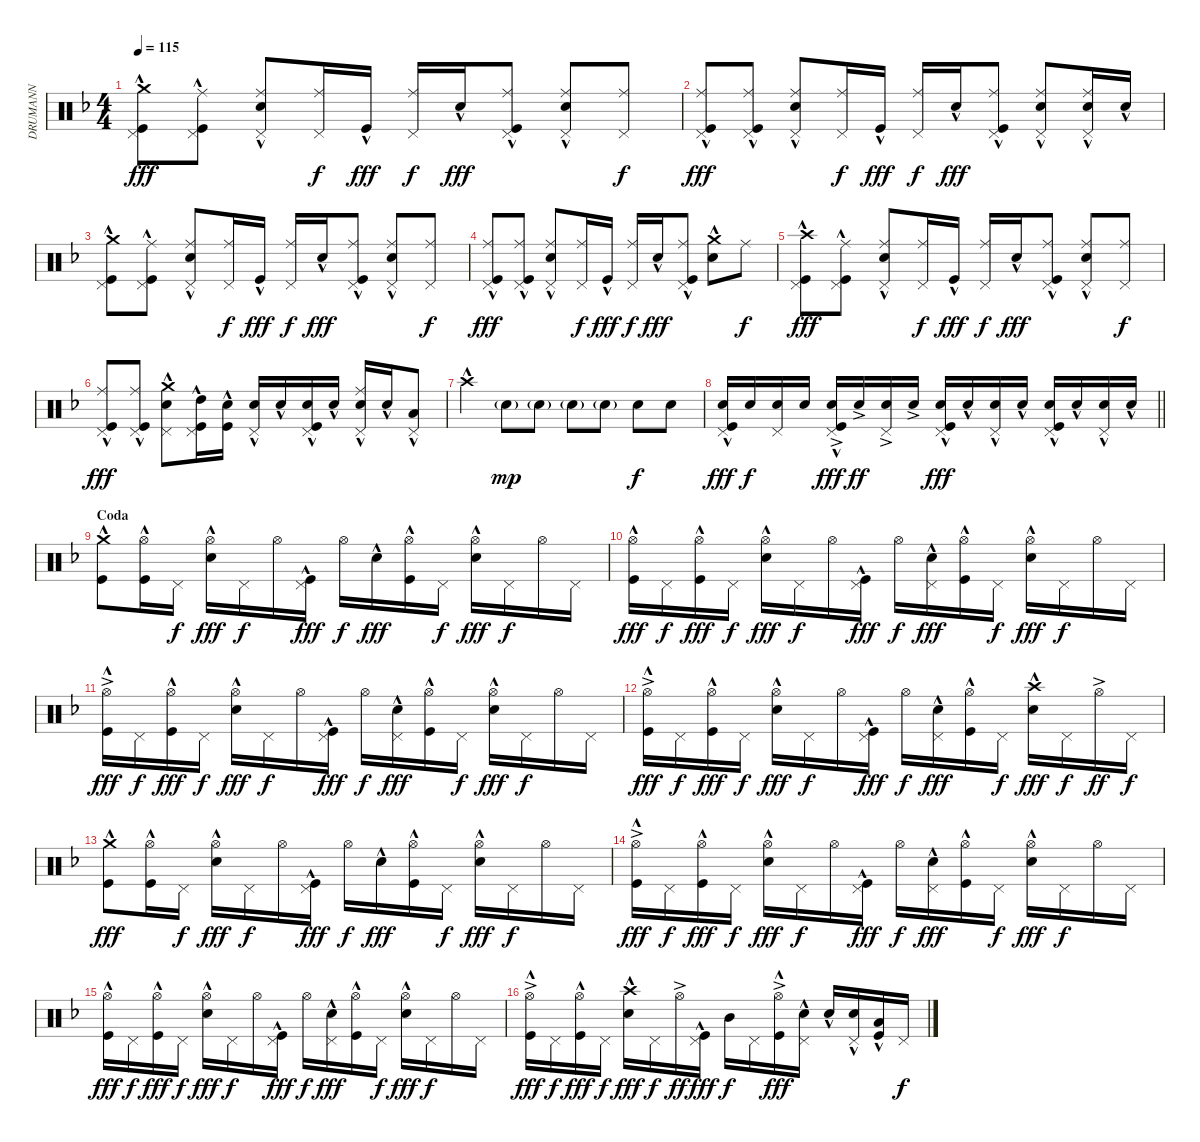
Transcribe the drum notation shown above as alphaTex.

\track ("DRUMANN" "DRUMANN") {instrument percussion}
\staff {score}
\articulation defaults
\ts (4 4)
\tempo 115
\clef neutral
\ks f
("Crash medium (hit)"{hac} "Pedal Hi-Hat (hit)" "Kick (hit)"{hac}).8{dy fff} ("Ride (middle)" "Pedal Hi-Hat (hit)" "Kick (hit)"{hac}).8 ("Ride (middle)" "Snare (hit) 2"{hac} "Pedal Hi-Hat (hit)").8 ("Ride (middle)" "Pedal Hi-Hat (hit)").16{dy f} "Kick (hit)"{hac}.16{dy fff} ("Ride (middle)" "Pedal Hi-Hat (hit)").16{dy f} "Snare (hit) 2"{hac}.16{dy fff} ("Ride (middle)" "Pedal Hi-Hat (hit)" "Kick (hit)"{hac}).8 ("Ride (middle)" "Snare (hit) 2"{hac} "Pedal Hi-Hat (hit)").8 ("Ride (middle)" "Pedal Hi-Hat (hit)").8{dy f} |
("Ride (middle)" "Pedal Hi-Hat (hit)" "Kick (hit)"{hac}).8{dy fff} ("Ride (middle)" "Pedal Hi-Hat (hit)" "Kick (hit)"{hac}).8 ("Ride (middle)" "Snare (hit) 2"{hac} "Pedal Hi-Hat (hit)").8 ("Ride (middle)" "Pedal Hi-Hat (hit)").16{dy f} "Kick (hit)"{hac}.16{dy fff} ("Ride (middle)" "Pedal Hi-Hat (hit)").16{dy f} "Snare (hit) 2"{hac}.16{dy fff} ("Ride (middle)" "Pedal Hi-Hat (hit)" "Kick (hit)"{hac}).8 ("Ride (middle)" "Snare (hit) 2"{hac} "Pedal Hi-Hat (hit)").8 ("Ride (middle)" "Snare (hit) 2"{hac} "Pedal Hi-Hat (hit)").16 "Snare (hit) 2"{hac}.16 |
("Crash medium (hit)"{hac} "Pedal Hi-Hat (hit)" "Kick (hit)"{hac}).8 ("Ride (middle)" "Pedal Hi-Hat (hit)" "Kick (hit)"{hac}).8 ("Ride (middle)" "Snare (hit) 2"{hac} "Pedal Hi-Hat (hit)").8 ("Ride (middle)" "Pedal Hi-Hat (hit)").16{dy f} "Kick (hit)"{hac}.16{dy fff} ("Ride (middle)" "Pedal Hi-Hat (hit)").16{dy f} "Snare (hit) 2"{hac}.16{dy fff} ("Ride (middle)" "Pedal Hi-Hat (hit)" "Kick (hit)"{hac}).8 ("Ride (middle)" "Snare (hit) 2"{hac} "Pedal Hi-Hat (hit)").8 ("Ride (middle)" "Pedal Hi-Hat (hit)").8{dy f} |
("Ride (middle)" "Pedal Hi-Hat (hit)" "Kick (hit)"{hac}).8{dy fff} ("Ride (middle)" "Pedal Hi-Hat (hit)" "Kick (hit)"{hac}).8 ("Ride (middle)" "Snare (hit) 2"{hac} "Pedal Hi-Hat (hit)").8 ("Ride (middle)" "Pedal Hi-Hat (hit)").16{dy f} "Kick (hit)"{hac}.16{dy fff} ("Ride (middle)" "Pedal Hi-Hat (hit)").16{dy f} "Snare (hit) 2"{hac}.16{dy fff} ("Ride (middle)" "Pedal Hi-Hat (hit)" "Kick (hit)"{hac}).8 ("Crash medium (hit)"{hac} "Snare (hit) 2"{hac}).8 "Ride (middle)".8{dy f} |
("Crash high (hit)"{hac} "Pedal Hi-Hat (hit)" "Kick (hit)"{hac}).8{dy fff} ("Ride (middle)" "Pedal Hi-Hat (hit)" "Kick (hit)"{hac}).8 ("Ride (middle)" "Snare (hit) 2"{hac} "Pedal Hi-Hat (hit)").8 ("Ride (middle)" "Pedal Hi-Hat (hit)").16{dy f} "Kick (hit)"{hac}.16{dy fff} ("Ride (middle)" "Pedal Hi-Hat (hit)").16{dy f} "Snare (hit) 2"{hac}.16{dy fff} ("Ride (middle)" "Pedal Hi-Hat (hit)" "Kick (hit)"{hac}).8 ("Ride (middle)" "Snare (hit) 2"{hac} "Pedal Hi-Hat (hit)").8 ("Ride (middle)" "Pedal Hi-Hat (hit)").8{dy f} |
("Ride (middle)"{hac} "Pedal Hi-Hat (hit)" "Kick (hit)"{hac}).8{dy fff} ("Ride (middle)" "Pedal Hi-Hat (hit)" "Kick (hit)"{hac}).8 ("Crash medium (hit)"{hac} "Snare (hit) 2"{hac} "Pedal Hi-Hat (hit)").8 ("High Tom (hit)"{hac} "Pedal Hi-Hat (hit)" "Kick (hit)"{hac}).16 ("Snare (hit) 2"{hac} "Kick (hit)"{hac}).16 ("Snare (hit) 2"{hac} "Pedal Hi-Hat (hit)").16 "Snare (hit) 2"{hac}.16 ("Snare (hit) 2"{hac} "Pedal Hi-Hat (hit)" "Kick (hit)"{hac}).16 "Snare (hit) 2"{hac}.16 ("Ride (middle)" "Snare (hit) 2"{hac} "Pedal Hi-Hat (hit)").16 "Snare (hit) 2"{hac}.16 ("Low Tom (hit)"{hac} "Pedal Hi-Hat (hit)").8 |
"Crash high (hit)"{hac}.4 "Snare (hit) 2"{g}.8{dy mp} "Snare (hit) 2"{g}.8 "Snare (hit) 2"{g}.8 "Snare (hit) 2"{g}.8 "Snare (hit) 2".8{dy f} "Snare (hit) 2".8 |
\barLineRight lightlight
("Snare (hit) 2" "Pedal Hi-Hat (hit)" "Kick (hit)"{hac}).16{dy fff} "Snare (hit) 2".16{dy f} ("Snare (hit) 2" "Pedal Hi-Hat (hit)").16 "Snare (hit) 2".16 ("Snare (hit) 2"{ac} "Pedal Hi-Hat (hit)" "Kick (hit)"{hac}).16{dy fff} "Snare (hit) 2"{ac}.16{dy ff} ("Snare (hit) 2"{ac} "Pedal Hi-Hat (hit)").16 "Snare (hit) 2"{ac}.16 ("Snare (hit) 2"{hac} "Pedal Hi-Hat (hit)" "Kick (hit)"{hac}).16{dy fff} "Snare (hit) 2"{hac}.16 ("Snare (hit) 2"{hac} "Pedal Hi-Hat (hit)").16 "Snare (hit) 2"{hac}.16 ("Snare (hit) 2"{hac} "Pedal Hi-Hat (hit)" "Kick (hit)"{hac}).16 "Snare (hit) 2"{hac}.16 ("Snare (hit) 2"{hac} "Pedal Hi-Hat (hit)").16 "Snare (hit) 2"{hac}.16 |
\section ("" "Coda")
("Crash medium (hit)"{hac} "Kick (hit)"{hac}).8 ("Hi-Hat (open)" "Kick (hit)"{hac}).16 "Pedal Hi-Hat (hit)".16{dy f} ("Hi-Hat (open)" "Snare (hit) 2"{hac}).16{dy fff} "Pedal Hi-Hat (hit)".16{dy f} "Hi-Hat (open)".16 ("Pedal Hi-Hat (hit)" "Kick (hit)"{hac}).16{dy fff} "Hi-Hat (open)".16{dy f} "Snare (hit) 2"{hac}.16{dy fff} ("Hi-Hat (open)" "Kick (hit)"{hac}).16 "Pedal Hi-Hat (hit)".16{dy f} ("Hi-Hat (open)" "Snare (hit) 2"{hac}).16{dy fff} "Pedal Hi-Hat (hit)".16{dy f} "Hi-Hat (open)".16 "Pedal Hi-Hat (hit)".16 |
("Hi-Hat (open)" "Kick (hit)"{hac}).16{dy fff} "Pedal Hi-Hat (hit)".16{dy f} ("Hi-Hat (open)" "Kick (hit)"{hac}).16{dy fff} "Pedal Hi-Hat (hit)".16{dy f} ("Hi-Hat (open)" "Snare (hit) 2"{hac}).16{dy fff} "Pedal Hi-Hat (hit)".16{dy f} "Hi-Hat (open)".16 ("Pedal Hi-Hat (hit)" "Kick (hit)"{hac}).16{dy fff} "Hi-Hat (open)".16{dy f} ("Snare (hit) 2"{hac} "Pedal Hi-Hat (hit)").16{dy fff} ("Hi-Hat (open)" "Kick (hit)"{hac}).16 "Pedal Hi-Hat (hit)".16{dy f} ("Hi-Hat (open)" "Snare (hit) 2"{hac}).16{dy fff} "Pedal Hi-Hat (hit)".16{dy f} "Hi-Hat (open)".16 "Pedal Hi-Hat (hit)".16 |
("Hi-Hat (open)"{ac} "Kick (hit)"{hac}).16{dy fff} "Pedal Hi-Hat (hit)".16{dy f} ("Hi-Hat (open)" "Kick (hit)"{hac}).16{dy fff} "Pedal Hi-Hat (hit)".16{dy f} ("Hi-Hat (open)" "Snare (hit) 2"{hac}).16{dy fff} "Pedal Hi-Hat (hit)".16{dy f} "Hi-Hat (open)".16 ("Pedal Hi-Hat (hit)" "Kick (hit)"{hac}).16{dy fff} "Hi-Hat (open)".16{dy f} ("Snare (hit) 2"{hac} "Pedal Hi-Hat (hit)").16{dy fff} ("Hi-Hat (open)" "Kick (hit)"{hac}).16 "Pedal Hi-Hat (hit)".16{dy f} ("Hi-Hat (open)" "Snare (hit) 2"{hac}).16{dy fff} "Pedal Hi-Hat (hit)".16{dy f} "Hi-Hat (open)".16 "Pedal Hi-Hat (hit)".16 |
("Hi-Hat (open)"{ac} "Kick (hit)"{hac}).16{dy fff} "Pedal Hi-Hat (hit)".16{dy f} ("Hi-Hat (open)" "Kick (hit)"{hac}).16{dy fff} "Pedal Hi-Hat (hit)".16{dy f} ("Hi-Hat (open)" "Snare (hit) 2"{hac}).16{dy fff} "Pedal Hi-Hat (hit)".16{dy f} "Hi-Hat (open)".16 ("Pedal Hi-Hat (hit)" "Kick (hit)"{hac}).16{dy fff} "Hi-Hat (open)".16{dy f} ("Snare (hit) 2"{hac} "Pedal Hi-Hat (hit)").16{dy fff} ("Hi-Hat (open)" "Kick (hit)"{hac}).16 "Pedal Hi-Hat (hit)".16{dy f} ("Crash high (hit)"{hac} "Snare (hit) 2"{hac}).16{dy fff} "Pedal Hi-Hat (hit)".16{dy f} "Hi-Hat (open)"{ac}.16{dy ff} "Pedal Hi-Hat (hit)".16{dy f} |
("Crash medium (hit)"{hac} "Kick (hit)"{hac}).8{dy fff} ("Hi-Hat (open)" "Kick (hit)"{hac}).16 "Pedal Hi-Hat (hit)".16{dy f} ("Hi-Hat (open)" "Snare (hit) 2"{hac}).16{dy fff} "Pedal Hi-Hat (hit)".16{dy f} "Hi-Hat (open)".16 ("Pedal Hi-Hat (hit)" "Kick (hit)"{hac}).16{dy fff} "Hi-Hat (open)".16{dy f} "Snare (hit) 2"{hac}.16{dy fff} ("Hi-Hat (open)" "Kick (hit)"{hac}).16 "Pedal Hi-Hat (hit)".16{dy f} ("Hi-Hat (open)" "Snare (hit) 2"{hac}).16{dy fff} "Pedal Hi-Hat (hit)".16{dy f} "Hi-Hat (open)".16 "Pedal Hi-Hat (hit)".16 |
("Hi-Hat (open)"{ac} "Kick (hit)"{hac}).16{dy fff} "Pedal Hi-Hat (hit)".16{dy f} ("Hi-Hat (open)" "Kick (hit)"{hac}).16{dy fff} "Pedal Hi-Hat (hit)".16{dy f} ("Hi-Hat (open)" "Snare (hit) 2"{hac}).16{dy fff} "Pedal Hi-Hat (hit)".16{dy f} "Hi-Hat (open)".16 ("Pedal Hi-Hat (hit)" "Kick (hit)"{hac}).16{dy fff} "Hi-Hat (open)".16{dy f} ("Snare (hit) 2"{hac} "Pedal Hi-Hat (hit)").16{dy fff} ("Hi-Hat (open)" "Kick (hit)"{hac}).16 "Pedal Hi-Hat (hit)".16{dy f} ("Hi-Hat (open)" "Snare (hit) 2"{hac}).16{dy fff} "Pedal Hi-Hat (hit)".16{dy f} "Hi-Hat (open)".16 "Pedal Hi-Hat (hit)".16 |
("Hi-Hat (open)" "Kick (hit)"{hac}).16{dy fff} "Pedal Hi-Hat (hit)".16{dy f} ("Hi-Hat (open)" "Kick (hit)"{hac}).16{dy fff} "Pedal Hi-Hat (hit)".16{dy f} ("Hi-Hat (open)" "Snare (hit) 2"{hac}).16{dy fff} "Pedal Hi-Hat (hit)".16{dy f} "Hi-Hat (open)".16 ("Pedal Hi-Hat (hit)" "Kick (hit)"{hac}).16{dy fff} "Hi-Hat (open)".16{dy f} ("Snare (hit) 2"{hac} "Pedal Hi-Hat (hit)").16{dy fff} ("Hi-Hat (open)" "Kick (hit)"{hac}).16 "Pedal Hi-Hat (hit)".16{dy f} ("Hi-Hat (open)" "Snare (hit) 2"{hac}).16{dy fff} "Pedal Hi-Hat (hit)".16{dy f} "Hi-Hat (open)".16 "Pedal Hi-Hat (hit)".16 |
("Hi-Hat (open)"{ac} "Kick (hit)"{hac}).16{dy fff} "Pedal Hi-Hat (hit)".16{dy f} ("Hi-Hat (open)" "Kick (hit)"{hac}).16{dy fff} "Pedal Hi-Hat (hit)".16{dy f} ("Crash high (hit)"{hac} "Snare (hit) 2"{hac}).16{dy fff} "Pedal Hi-Hat (hit)".16{dy f} "Hi-Hat (open)"{ac}.16{dy ff} ("Pedal Hi-Hat (hit)" "Kick (hit)"{hac}).16{dy fff} "Mid Tom (hit)".16{dy f} "Pedal Hi-Hat (hit)".16 ("Hi-Hat (open)"{ac} "Kick (hit)"{hac}).16{dy fff} ("Snare (hit) 2"{hac} "Pedal Hi-Hat (hit)").16 "Snare (hit) 2"{hac}.16 ("Snare (hit) 2"{hac} "Pedal Hi-Hat (hit)").16 ("Low Tom (hit)"{hac} "Kick (hit)"{hac}).16 "Pedal Hi-Hat (hit)".16{dy f}
